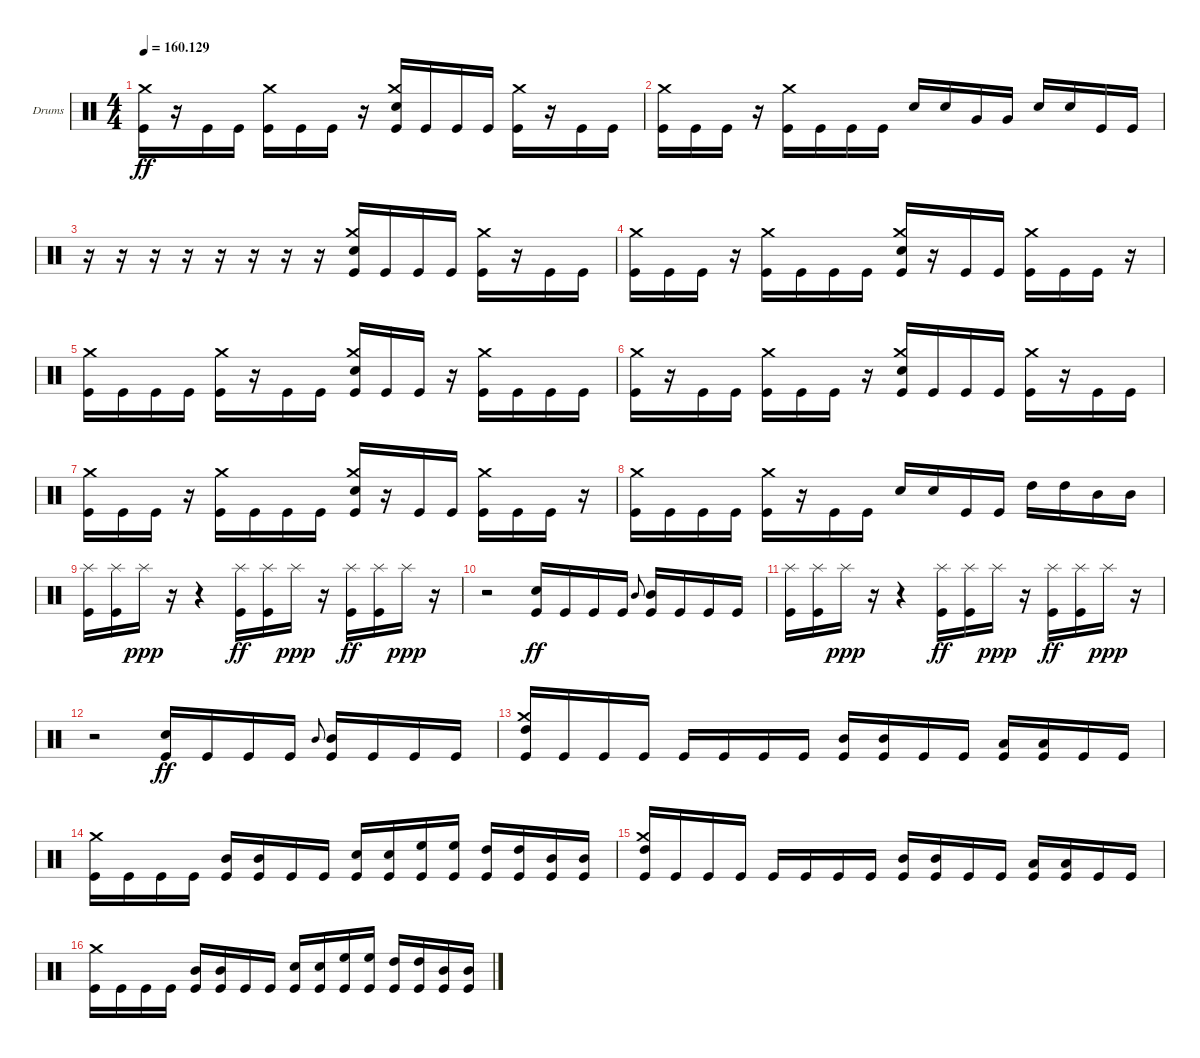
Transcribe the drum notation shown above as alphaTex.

\bracketExtendMode groupsimilarinstruments
\firstSystemTrackNameOrientation horizontal
\otherSystemsTrackNameOrientation horizontal
\track ("Drumkit" "Drums") {instrument percussion}
\staff {score}
\articulation defaults
\ts (4 4)
\tempo
160.129
\accidentals auto
\clef neutral
\ottava regular
\simile none
\ks c
("Kick (hit)" "Crash medium (hit)").16{dy ff} r.16 "Kick (hit)".16 "Kick (hit)".16 ("Kick (hit)" "Crash medium (hit)").16 "Kick (hit)".16 "Kick (hit)".16 r.16 ("Kick (hit)" "Crash medium (hit)" "Snare (hit) 2").16 "Kick (hit)".16 "Kick (hit)".16 "Kick (hit)".16 ("Kick (hit)" "Crash medium (hit)").16 r.16 "Kick (hit)".16 "Kick (hit)".16 |
("Kick (hit)" "Crash medium (hit)").16 "Kick (hit)".16 "Kick (hit)".16 r.16 ("Kick (hit)" "Crash medium (hit)").16 "Kick (hit)".16 "Kick (hit)".16 "Kick (hit)".16 "Snare (hit) 2".16 "Snare (hit) 2".16 "Very Low Tom (hit)".16 "Very Low Tom (hit)".16 "Snare (hit) 2".16 "Snare (hit) 2".16 "Kick (hit)".16 "Kick (hit)".16 |
r.16 r.16 r.16 r.16 r.16 r.16 r.16 r.16 ("Kick (hit)" "Crash medium (hit)" "Snare (hit) 2").16 "Kick (hit)".16 "Kick (hit)".16 "Kick (hit)".16 ("Kick (hit)" "Crash medium (hit)").16 r.16 "Kick (hit)".16 "Kick (hit)".16 |
("Kick (hit)" "Crash medium (hit)").16 "Kick (hit)".16 "Kick (hit)".16 r.16 ("Kick (hit)" "Crash medium (hit)").16 "Kick (hit)".16 "Kick (hit)".16 "Kick (hit)".16 ("Kick (hit)" "Crash medium (hit)" "Snare (hit) 2").16 r.16 "Kick (hit)".16 "Kick (hit)".16 ("Kick (hit)" "Crash medium (hit)").16 "Kick (hit)".16 "Kick (hit)".16 r.16 |
("Kick (hit)" "Crash medium (hit)").16 "Kick (hit)".16 "Kick (hit)".16 "Kick (hit)".16 ("Kick (hit)" "Crash medium (hit)").16 r.16 "Kick (hit)".16 "Kick (hit)".16 ("Kick (hit)" "Crash medium (hit)" "Snare (hit) 2").16 "Kick (hit)".16 "Kick (hit)".16 r.16 ("Kick (hit)" "Crash medium (hit)").16 "Kick (hit)".16 "Kick (hit)".16 "Kick (hit)".16 |
("Kick (hit)" "Crash medium (hit)").16 r.16 "Kick (hit)".16 "Kick (hit)".16 ("Kick (hit)" "Crash medium (hit)").16 "Kick (hit)".16 "Kick (hit)".16 r.16 ("Kick (hit)" "Crash medium (hit)" "Snare (hit) 2").16 "Kick (hit)".16 "Kick (hit)".16 "Kick (hit)".16 ("Kick (hit)" "Crash medium (hit)").16 r.16 "Kick (hit)".16 "Kick (hit)".16 |
("Kick (hit)" "Crash medium (hit)").16 "Kick (hit)".16 "Kick (hit)".16 r.16 ("Kick (hit)" "Crash medium (hit)").16 "Kick (hit)".16 "Kick (hit)".16 "Kick (hit)".16 ("Kick (hit)" "Crash medium (hit)" "Snare (hit) 2").16 r.16 "Kick (hit)".16 "Kick (hit)".16 ("Kick (hit)" "Crash medium (hit)").16 "Kick (hit)".16 "Kick (hit)".16 r.16 |
("Kick (hit)" "Crash medium (hit)").16 "Kick (hit)".16 "Kick (hit)".16 "Kick (hit)".16 ("Kick (hit)" "Crash medium (hit)").16 r.16 "Kick (hit)".16 "Kick (hit)".16 "Snare (hit) 2".16 "Snare (hit) 2".16 "Kick (hit)".16 "Kick (hit)".16 "High Tom (hit)".16 "High Tom (hit)".16 "Mid Tom (hit)".16 "Mid Tom (hit)".16 |
("Kick (hit)" "Splash (hit)").16 ("Kick (hit)" "Splash (hit)").16 "Splash (hit)".16{dy ppp} r.16 r.4 ("Kick (hit)" "Splash (hit)").16{dy ff} ("Kick (hit)" "Splash (hit)").16 "Splash (hit)".16{dy ppp} r.16 ("Kick (hit)" "Splash (hit)").16{dy ff} ("Kick (hit)" "Splash (hit)").16 "Splash (hit)".16{dy ppp} r.16 |
r.2 ("Kick (hit)" "Snare (hit) 2").16{dy ff} "Kick (hit)".16 "Kick (hit)".16 "Kick (hit)".16 "Mid Tom (hit)".8{gr onbeat} ("Kick (hit)" "Mid Tom (hit)").16 "Kick (hit)".16 "Kick (hit)".16 "Kick (hit)".16 |
("Kick (hit)" "Splash (hit)").16 ("Kick (hit)" "Splash (hit)").16 "Splash (hit)".16{dy ppp} r.16 r.4 ("Kick (hit)" "Splash (hit)").16{dy ff} ("Kick (hit)" "Splash (hit)").16 "Splash (hit)".16{dy ppp} r.16 ("Kick (hit)" "Splash (hit)").16{dy ff} ("Kick (hit)" "Splash (hit)").16 "Splash (hit)".16{dy ppp} r.16 |
r.2 ("Kick (hit)" "Snare (hit) 2").16{dy ff} "Kick (hit)".16 "Kick (hit)".16 "Kick (hit)".16 "Mid Tom (hit)".8{gr onbeat} ("Kick (hit)" "Mid Tom (hit)").16 "Kick (hit)".16 "Kick (hit)".16 "Kick (hit)".16 |
("Kick (hit)" "High Tom (hit)" "Crash medium (hit)").16 "Kick (hit)".16 "Kick (hit)".16 "Kick (hit)".16 "Kick (hit)".16 "Kick (hit)".16 "Kick (hit)".16 "Kick (hit)".16 ("Kick (hit)" "Mid Tom (hit)").16 ("Kick (hit)" "Mid Tom (hit)").16 "Kick (hit)".16 "Kick (hit)".16 ("Kick (hit)" "Low Tom (hit)").16 ("Kick (hit)" "Low Tom (hit)").16 "Kick (hit)".16 "Kick (hit)".16 |
("Kick (hit)" "Crash medium (hit)").16 "Kick (hit)".16 "Kick (hit)".16 "Kick (hit)".16 ("Kick (hit)" "Mid Tom (hit)").16 ("Kick (hit)" "Mid Tom (hit)").16 "Kick (hit)".16 "Kick (hit)".16 ("Kick (hit)" "Snare (hit) 2").16 ("Kick (hit)" "Snare (hit) 2").16 ("Kick (hit)" "High Floor Tom (hit)").16 ("Kick (hit)" "High Floor Tom (hit)").16 ("Kick (hit)" "High Tom (hit)").16 ("Kick (hit)" "High Tom (hit)").16 ("Kick (hit)" "Mid Tom (hit)").16 ("Kick (hit)" "Mid Tom (hit)").16 |
("Kick (hit)" "High Tom (hit)" "Crash medium (hit)").16 "Kick (hit)".16 "Kick (hit)".16 "Kick (hit)".16 "Kick (hit)".16 "Kick (hit)".16 "Kick (hit)".16 "Kick (hit)".16 ("Kick (hit)" "Mid Tom (hit)").16 ("Kick (hit)" "Mid Tom (hit)").16 "Kick (hit)".16 "Kick (hit)".16 ("Kick (hit)" "Low Tom (hit)").16 ("Kick (hit)" "Low Tom (hit)").16 "Kick (hit)".16 "Kick (hit)".16 |
("Kick (hit)" "Crash medium (hit)").16 "Kick (hit)".16 "Kick (hit)".16 "Kick (hit)".16 ("Kick (hit)" "Mid Tom (hit)").16 ("Kick (hit)" "Mid Tom (hit)").16 "Kick (hit)".16 "Kick (hit)".16 ("Kick (hit)" "Snare (hit) 2").16 ("Kick (hit)" "Snare (hit) 2").16 ("Kick (hit)" "High Floor Tom (hit)").16 ("Kick (hit)" "High Floor Tom (hit)").16 ("Kick (hit)" "High Tom (hit)").16 ("Kick (hit)" "High Tom (hit)").16 ("Kick (hit)" "Mid Tom (hit)").16 ("Kick (hit)" "Mid Tom (hit)").16
